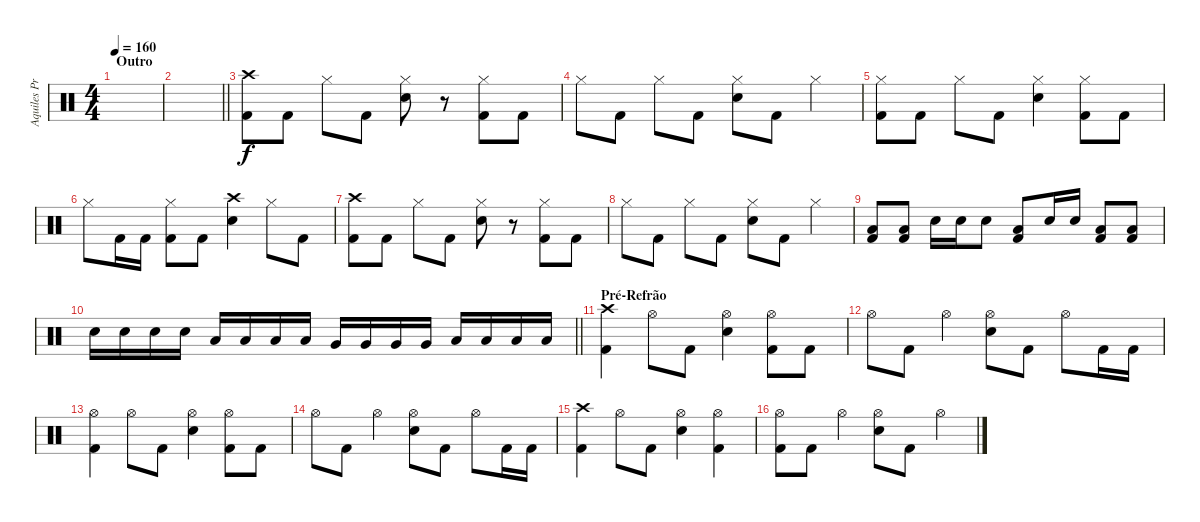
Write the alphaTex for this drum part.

\track ("Aquiles Priester" "Aquiles Pr") {instrument percussion}
\staff {score}
\articulation defaults
\ts (4 4)
\section ("" "Outro")
\tempo 160
\clef neutral
\ks c
|
\barLineRight lightlight
|
("Crash high (hit)" "Kick (hit) 2").8 "Kick (hit) 2".8 "Hi-Hat (closed)".8 "Kick (hit) 2".8 ("Hi-Hat (closed)" "Electric Snare (hit)").8 r.8 ("Hi-Hat (closed)" "Kick (hit) 2").8 "Kick (hit) 2".8 |
"Hi-Hat (closed)".8 "Kick (hit) 2".8 "Hi-Hat (closed)".8 "Kick (hit) 2".8 ("Hi-Hat (closed)" "Electric Snare (hit)").8 "Kick (hit) 2".8 "Hi-Hat (closed)".4 |
("Hi-Hat (closed)" "Kick (hit) 2").8 "Kick (hit) 2".8 "Hi-Hat (closed)".8 "Kick (hit) 2".8 ("Hi-Hat (closed)" "Electric Snare (hit)").4 ("Hi-Hat (closed)" "Kick (hit) 2").8 "Kick (hit) 2".8 |
"Hi-Hat (closed)".8 "Kick (hit) 2".16 "Kick (hit) 2".16 ("Hi-Hat (closed)" "Kick (hit) 2").8 "Kick (hit) 2".8 ("Crash high (hit)" "Electric Snare (hit)").4 "Hi-Hat (closed)".8 "Kick (hit) 2".8 |
("Crash high (hit)" "Kick (hit) 2").8 "Kick (hit) 2".8 "Hi-Hat (closed)".8 "Kick (hit) 2".8 ("Hi-Hat (closed)" "Electric Snare (hit)").8 r.8 ("Hi-Hat (closed)" "Kick (hit) 2").8 "Kick (hit) 2".8 |
"Hi-Hat (closed)".8 "Kick (hit) 2".8 "Hi-Hat (closed)".8 "Kick (hit) 2".8 ("Hi-Hat (closed)" "Electric Snare (hit)").8 "Kick (hit) 2".8 "Hi-Hat (closed)".4 |
("Low Tom (hit)" "Kick (hit) 2").8 ("Low Tom (hit)" "Kick (hit) 2").8 "Electric Snare (hit)".16 "Electric Snare (hit)".16 "Electric Snare (hit)".8 ("Low Tom (hit)" "Kick (hit) 2").8 "Electric Snare (hit)".16 "Electric Snare (hit)".16 ("Low Tom (hit)" "Kick (hit) 2").8 ("Low Tom (hit)" "Kick (hit) 2").8 |
\barLineRight lightlight "Electric Snare (hit)".16 "Electric Snare (hit)".16 "Electric Snare (hit)".16 "Electric Snare (hit)".16 "Low Tom (hit)".16 "Low Tom (hit)".16 "Low Tom (hit)".16 "Low Tom (hit)".16 "Very Low Tom (hit)".16 "Very Low Tom (hit)".16 "Very Low Tom (hit)".16 "Very Low Tom (hit)".16 "Low Floor Tom (hit)".16 "Low Floor Tom (hit)".16 "Low Floor Tom (hit)".16 "Low Floor Tom (hit)".16
|
\section ("" "Pré-Refrão")
("Crash high (hit)" "Kick (hit) 2").4 "Hi-Hat (open)".8 "Kick (hit) 2".8 ("Hi-Hat (open)" "Electric Snare (hit)").4 ("Hi-Hat (open)" "Kick (hit) 2").8 "Kick (hit) 2".8 |
"Hi-Hat (open)".8 "Kick (hit) 2".8 "Hi-Hat (open)".4 ("Hi-Hat (open)" "Electric Snare (hit)").8 "Kick (hit) 2".8 "Hi-Hat (open)".8 "Kick (hit) 2".16 "Kick (hit) 2".16 |
("Hi-Hat (open)" "Kick (hit) 2").4 "Hi-Hat (open)".8 "Kick (hit) 2".8 ("Hi-Hat (open)" "Electric Snare (hit)").4 ("Hi-Hat (open)" "Kick (hit) 2").8 "Kick (hit) 2".8 |
"Hi-Hat (open)".8 "Kick (hit) 2".8 "Hi-Hat (open)".4 ("Hi-Hat (open)" "Electric Snare (hit)").8 "Kick (hit) 2".8 "Hi-Hat (open)".8 "Kick (hit) 2".16 "Kick (hit) 2".16 |
("Crash high (hit)" "Kick (hit) 2").4 "Hi-Hat (open)".8 "Kick (hit) 2".8 ("Hi-Hat (open)" "Electric Snare (hit)").4 ("Hi-Hat (open)" "Kick (hit) 2").4 |
("Hi-Hat (open)" "Kick (hit) 2").8 "Kick (hit) 2".8 "Hi-Hat (open)".4 ("Hi-Hat (open)" "Electric Snare (hit)").8 "Kick (hit) 2".8 "Hi-Hat (open)".4
